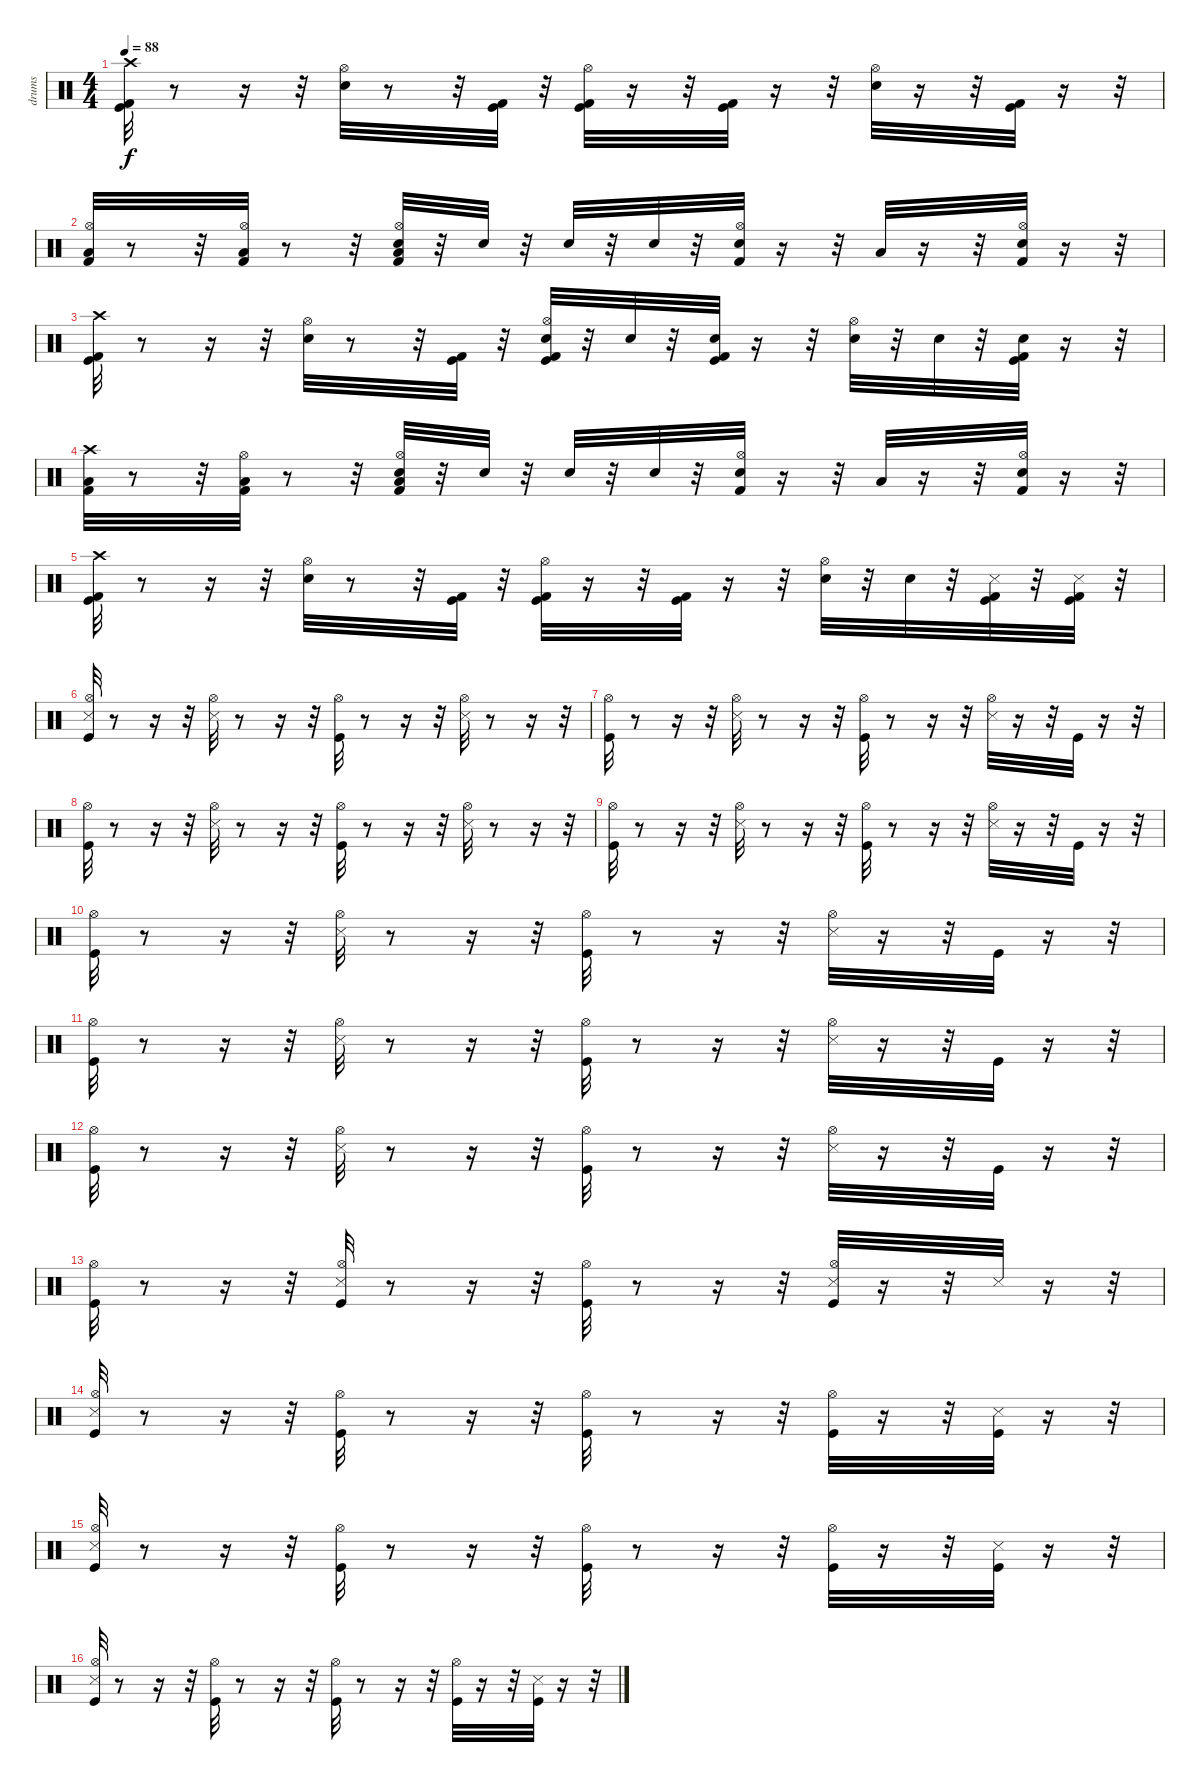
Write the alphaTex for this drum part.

\track ("drums" "drums") {instrument percussion}
\staff {score}
\articulation defaults
\ts (4 4)
\tempo 88
\clef neutral
\ks c
("Crash high (hit)" "Kick (hit)" "Kick (hit) 2").32{dy f} r.8 r.16 r.32 ("Hi-Hat (open)" "Snare (hit) 2").32 r.8 r.32 ("Kick (hit) 2" "Kick (hit)").32 r.32 ("Hi-Hat (open)" "Kick (hit) 2" "Kick (hit)").32 r.16 r.32 ("Kick (hit) 2" "Kick (hit)").32 r.16 r.32 ("Hi-Hat (open)" "Snare (hit) 2").32 r.16 r.32 ("Kick (hit) 2" "Kick (hit)").32 r.16 r.32 |
("Low Floor Tom (hit)" "Hi-Hat (open)" "Kick (hit) 2").32 r.8 r.32 ("Kick (hit) 2" "Low Floor Tom (hit)" "Hi-Hat (open)").32 r.8 r.32 ("Snare (hit) 2" "Kick (hit) 2" "Low Floor Tom (hit)" "Hi-Hat (open)").32 r.32 "Snare (hit) 2".32 r.32 "Snare (hit) 2".32 r.32 "Snare (hit) 2".32 r.32 ("Snare (hit) 2" "Hi-Hat (open)" "Kick (hit) 2").32 r.16 r.32 "Low Floor Tom (hit)".32 r.16 r.32 ("Hi-Hat (open)" "Snare (hit) 2" "Kick (hit) 2").32 r.16 r.32 |
("Crash high (hit)" "Kick (hit) 2" "Kick (hit)").32 r.8 r.16 r.32 ("Snare (hit) 2" "Hi-Hat (open)").32 r.8 r.32 ("Kick (hit)" "Kick (hit) 2").32 r.32 ("Snare (hit) 2" "Kick (hit)" "Kick (hit) 2" "Hi-Hat (open)").32 r.32 "Snare (hit) 2".32 r.32 ("Snare (hit) 2" "Kick (hit) 2" "Kick (hit)").32 r.16 r.32 ("Hi-Hat (open)" "Snare (hit) 2").32 r.32 "Snare (hit) 2".32 r.32 ("Snare (hit) 2" "Kick (hit)" "Kick (hit) 2").32 r.16 r.32 |
("Kick (hit) 2" "Low Floor Tom (hit)" "Crash high (hit)").32 r.8 r.32 ("Kick (hit) 2" "Low Floor Tom (hit)" "Hi-Hat (open)").32 r.8 r.32 ("Snare (hit) 2" "Kick (hit) 2" "Low Floor Tom (hit)" "Hi-Hat (open)").32 r.32 "Snare (hit) 2".32 r.32 "Snare (hit) 2".32 r.32 "Snare (hit) 2".32 r.32 ("Snare (hit) 2" "Kick (hit) 2" "Hi-Hat (open)").32 r.16 r.32 "Low Floor Tom (hit)".32 r.16 r.32 ("Kick (hit) 2" "Hi-Hat (open)" "Snare (hit) 2").32 r.16 r.32 |
("Crash high (hit)" "Kick (hit)" "Kick (hit) 2").32 r.8 r.16 r.32 ("Hi-Hat (open)" "Snare (hit) 2").32 r.8 r.32 ("Kick (hit) 2" "Kick (hit)").32 r.32 ("Hi-Hat (open)" "Kick (hit) 2" "Kick (hit)").32 r.16 r.32 ("Kick (hit) 2" "Kick (hit)").32 r.16 r.32 ("Hi-Hat (open)" "Snare (hit) 2").32 r.32 "Snare (hit) 2".32 r.32 ("Snare (side stick) 3" "Kick (hit) 2" "Kick (hit)").32 r.32 ("Kick (hit)" "Kick (hit) 2" "Snare (side stick) 3").32 r.32 |
("Snare (side stick) 3" "Kick (hit)" "Hi-Hat (open)").32 r.8 r.16 r.32 ("Snare (side stick) 3" "Hi-Hat (open)").32 r.8 r.16 r.32 ("Kick (hit)" "Hi-Hat (open)").32 r.8 r.16 r.32 ("Snare (side stick) 3" "Hi-Hat (open)").32 r.8 r.16 r.32 |
("Kick (hit)" "Hi-Hat (open)").32 r.8 r.16 r.32 ("Snare (side stick) 3" "Hi-Hat (open)").32 r.8 r.16 r.32 ("Kick (hit)" "Hi-Hat (open)").32 r.8 r.16 r.32 ("Snare (side stick) 3" "Hi-Hat (open)").32 r.16 r.32 "Kick (hit)".32 r.16 r.32 |
("Kick (hit)" "Hi-Hat (open)").32 r.8 r.16 r.32 ("Snare (side stick) 3" "Hi-Hat (open)").32 r.8 r.16 r.32 ("Kick (hit)" "Hi-Hat (open)").32 r.8 r.16 r.32 ("Snare (side stick) 3" "Hi-Hat (open)").32 r.8 r.16 r.32 |
("Kick (hit)" "Hi-Hat (open)").32 r.8 r.16 r.32 ("Snare (side stick) 3" "Hi-Hat (open)").32 r.8 r.16 r.32 ("Kick (hit)" "Hi-Hat (open)").32 r.8 r.16 r.32 ("Snare (side stick) 3" "Hi-Hat (open)").32 r.16 r.32 "Kick (hit)".32 r.16 r.32 |
("Kick (hit)" "Hi-Hat (open)").32 r.8 r.16 r.32 ("Snare (side stick) 3" "Hi-Hat (open)").32 r.8 r.16 r.32 ("Kick (hit)" "Hi-Hat (open)").32 r.8 r.16 r.32 ("Snare (side stick) 3" "Hi-Hat (open)").32 r.16 r.32 "Kick (hit)".32 r.16 r.32 |
("Kick (hit)" "Hi-Hat (open)").32 r.8 r.16 r.32 ("Snare (side stick) 3" "Hi-Hat (open)").32 r.8 r.16 r.32 ("Kick (hit)" "Hi-Hat (open)").32 r.8 r.16 r.32 ("Snare (side stick) 3" "Hi-Hat (open)").32 r.16 r.32 "Kick (hit)".32 r.16 r.32 |
("Kick (hit)" "Hi-Hat (open)").32 r.8 r.16 r.32 ("Snare (side stick) 3" "Hi-Hat (open)").32 r.8 r.16 r.32 ("Kick (hit)" "Hi-Hat (open)").32 r.8 r.16 r.32 ("Snare (side stick) 3" "Hi-Hat (open)").32 r.16 r.32 "Kick (hit)".32 r.16 r.32 |
("Kick (hit)" "Hi-Hat (open)").32 r.8 r.16 r.32 ("Kick (hit)" "Snare (side stick) 3" "Hi-Hat (open)").32 r.8 r.16 r.32 ("Kick (hit)" "Hi-Hat (open)").32 r.8 r.16 r.32 ("Kick (hit)" "Snare (side stick) 3" "Hi-Hat (open)").32 r.16 r.32 "Snare (side stick) 3".32 r.16 r.32 |
("Snare (side stick) 3" "Kick (hit)" "Hi-Hat (open)").32 r.8 r.16 r.32 ("Hi-Hat (open)" "Kick (hit)").32 r.8 r.16 r.32 ("Hi-Hat (open)" "Kick (hit)").32 r.8 r.16 r.32 ("Hi-Hat (open)" "Kick (hit)").32 r.16 r.32 ("Kick (hit)" "Snare (side stick) 3").32 r.16 r.32 |
("Snare (side stick) 3" "Hi-Hat (open)" "Kick (hit)").32 r.8 r.16 r.32 ("Hi-Hat (open)" "Kick (hit)").32 r.8 r.16 r.32 ("Hi-Hat (open)" "Kick (hit)").32 r.8 r.16 r.32 ("Hi-Hat (open)" "Kick (hit)").32 r.16 r.32 ("Kick (hit)" "Snare (side stick) 3").32 r.16 r.32 |
("Hi-Hat (open)" "Kick (hit)" "Snare (side stick) 3").32 r.8 r.16 r.32 ("Kick (hit)" "Hi-Hat (open)").32 r.8 r.16 r.32 ("Kick (hit)" "Hi-Hat (open)").32 r.8 r.16 r.32 ("Kick (hit)" "Hi-Hat (open)").32 r.16 r.32 ("Kick (hit)" "Snare (side stick) 3").32 r.16 r.32
